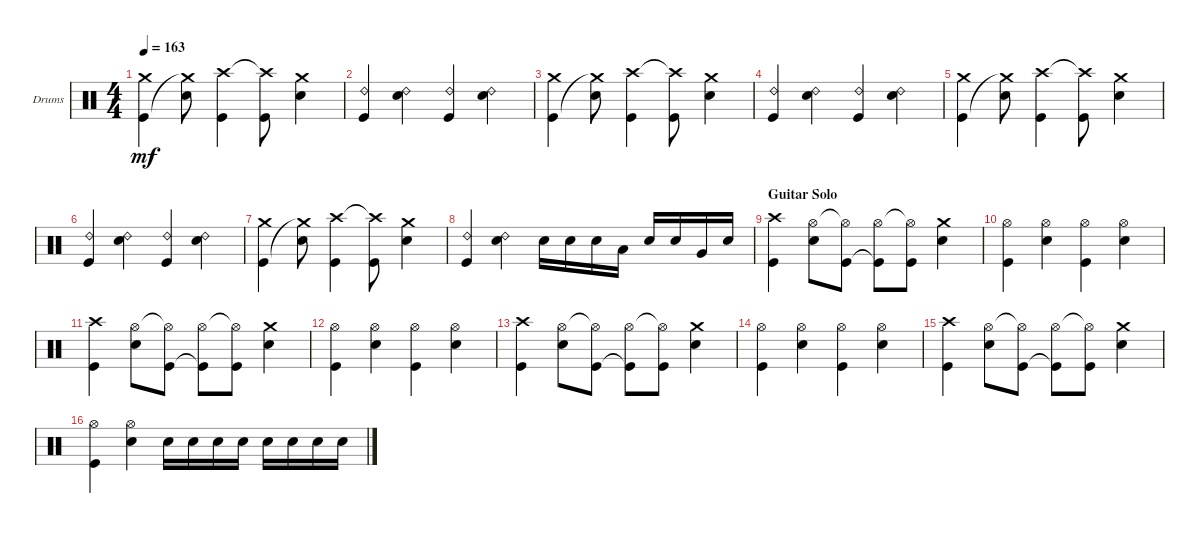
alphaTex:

\bracketExtendMode groupsimilarinstruments
\firstSystemTrackNameOrientation horizontal
\otherSystemsTrackNameOrientation horizontal
\track ("Drums" "Drums") {instrument percussion}
\staff {score}
\articulation defaults
\ts (4 4)
\tempo 163
\clef neutral
\scale
0.333333
\ks c
("Crash medium (hit)" "Kick (hit)").4{dy mf} ("Snare (hit) 2" "Crash medium (hit)"{t}).8 ("Kick (hit)" "Crash high (hit)").4 ("Kick (hit)" "Crash high (hit)"{t}).8 ("Snare (hit) 2" "Crash medium (hit)").4 |
\scale
0.333333 ("Ride (bell) 2" "Kick (hit)").4 ("Ride (bell) 2" "Snare (hit) 2").4 ("Ride (bell) 2" "Kick (hit)").4 ("Ride (bell) 2" "Snare (hit) 2").4 |
\scale
0.333333 ("Crash medium (hit)" "Kick (hit)").4 ("Snare (hit) 2" "Crash medium (hit)"{t}).8 ("Kick (hit)" "Crash high (hit)").4 ("Kick (hit)" "Crash high (hit)"{t}).8 ("Snare (hit) 2" "Crash medium (hit)").4 |
\scale
0.333333 ("Ride (bell) 2" "Kick (hit)").4 ("Ride (bell) 2" "Snare (hit) 2").4 ("Ride (bell) 2" "Kick (hit)").4 ("Ride (bell) 2" "Snare (hit) 2").4 |
\scale
0.333333 ("Crash medium (hit)" "Kick (hit)").4 ("Snare (hit) 2" "Crash medium (hit)"{t}).8 ("Kick (hit)" "Crash high (hit)").4 ("Kick (hit)" "Crash high (hit)"{t}).8 ("Snare (hit) 2" "Crash medium (hit)").4 |
\scale
0.333333 ("Ride (bell) 2" "Kick (hit)").4 ("Ride (bell) 2" "Snare (hit) 2").4 ("Ride (bell) 2" "Kick (hit)").4 ("Ride (bell) 2" "Snare (hit) 2").4 |
\scale
0.333333 ("Crash medium (hit)" "Kick (hit)").4 ("Snare (hit) 2" "Crash medium (hit)"{t}).8 ("Kick (hit)" "Crash high (hit)").4 ("Kick (hit)" "Crash high (hit)"{t}).8 ("Snare (hit) 2" "Crash medium (hit)").4 |
\scale
0.333333 ("Ride (bell) 2" "Kick (hit)").4 ("Ride (bell) 2" "Snare (hit) 2").4 "Snare (hit) 2".16 "Snare (hit) 2".16 "Snare (hit) 2".16 "Low Tom (hit)".16 "Snare (hit) 2".16 "Snare (hit) 2".16 "Very Low Tom (hit)".16 "Snare (hit) 2".16 |
\section ("" "Guitar Solo")
\scale
0.333333 ("Kick (hit)" "Crash high (hit)").4 ("Snare (hit) 2" "Hi-Hat (open)").8 ("Kick (hit)" "Hi-Hat (open)"{t}).8 ("Kick (hit)"{t} "Hi-Hat (open)").8 ("Kick (hit)" "Hi-Hat (open)"{t}).8 ("Snare (hit) 2" "Crash medium (hit)").4 |
\scale
0.333333 ("Kick (hit)" "Hi-Hat (open)").4 ("Snare (hit) 2" "Hi-Hat (open)").4 ("Kick (hit)" "Hi-Hat (open)").4 ("Snare (hit) 2" "Hi-Hat (open)").4 |
\scale
0.333333 ("Kick (hit)" "Crash high (hit)").4 ("Snare (hit) 2" "Hi-Hat (open)").8 ("Kick (hit)" "Hi-Hat (open)"{t}).8 ("Kick (hit)"{t} "Hi-Hat (open)").8 ("Kick (hit)" "Hi-Hat (open)"{t}).8 ("Snare (hit) 2" "Crash medium (hit)").4 |
\scale
0.333333 ("Kick (hit)" "Hi-Hat (open)").4 ("Snare (hit) 2" "Hi-Hat (open)").4 ("Kick (hit)" "Hi-Hat (open)").4 ("Snare (hit) 2" "Hi-Hat (open)").4 |
\scale
0.333333 ("Kick (hit)" "Crash high (hit)").4 ("Snare (hit) 2" "Hi-Hat (open)").8 ("Kick (hit)" "Hi-Hat (open)"{t}).8 ("Kick (hit)"{t} "Hi-Hat (open)").8 ("Kick (hit)" "Hi-Hat (open)"{t}).8 ("Snare (hit) 2" "Crash medium (hit)").4 |
\scale
0.333333 ("Kick (hit)" "Hi-Hat (open)").4 ("Snare (hit) 2" "Hi-Hat (open)").4 ("Kick (hit)" "Hi-Hat (open)").4 ("Snare (hit) 2" "Hi-Hat (open)").4 |
\scale
0.333333 ("Kick (hit)" "Crash high (hit)").4 ("Snare (hit) 2" "Hi-Hat (open)").8 ("Kick (hit)" "Hi-Hat (open)"{t}).8 ("Kick (hit)"{t} "Hi-Hat (open)").8 ("Kick (hit)" "Hi-Hat (open)"{t}).8 ("Snare (hit) 2" "Crash medium (hit)").4 |
\scale
0.333333 ("Kick (hit)" "Hi-Hat (open)").4 ("Snare (hit) 2" "Hi-Hat (open)").4 "Snare (hit) 2".16 "Snare (hit) 2".16 "Snare (hit) 2".16 "Snare (hit) 2".16 "Snare (hit) 2".16 "Snare (hit) 2".16 "Snare (hit) 2".16 "Snare (hit) 2".16
